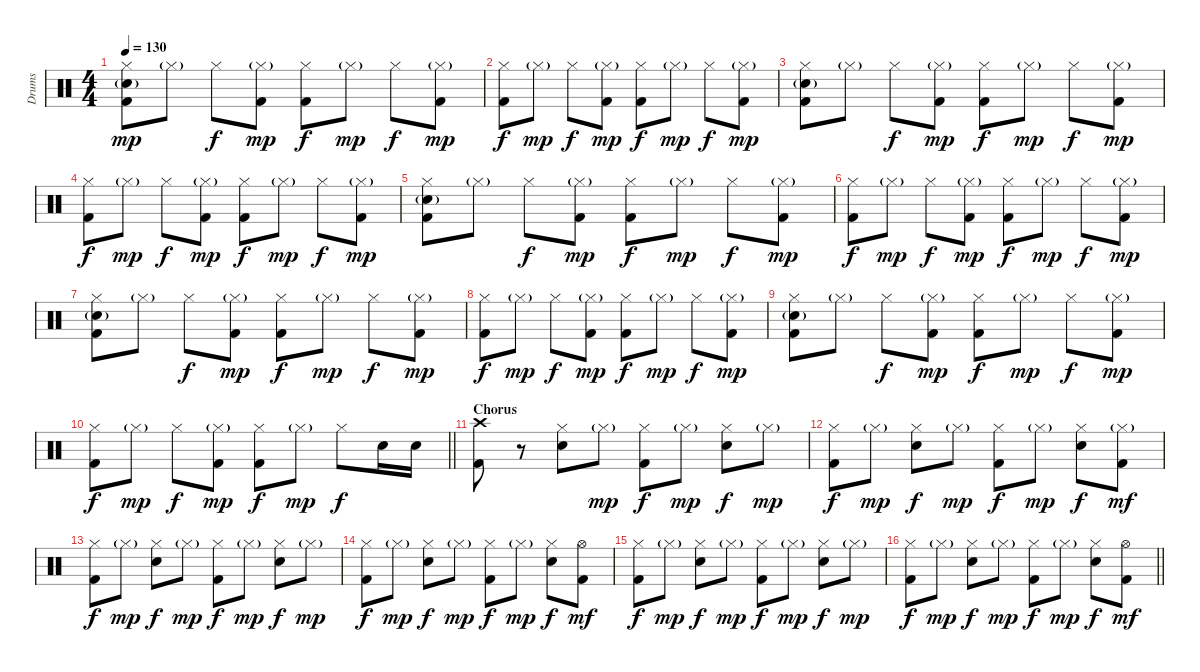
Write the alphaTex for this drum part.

\track ("Drums" "Drums") {instrument percussion}
\staff {score}
\articulation defaults
\ts (4 4)
\tempo 130
\clef neutral
\ks c
("Hi-Hat (closed)" "Snare (hit) 2"{g} "Kick (hit) 2").8{dy mp} "Hi-Hat (closed)"{g}.8 "Hi-Hat (closed)".8{dy f} ("Hi-Hat (closed)"{g} "Kick (hit) 2").8{dy mp} ("Hi-Hat (closed)" "Kick (hit) 2").8{dy f} "Hi-Hat (closed)"{g}.8{dy mp} "Hi-Hat (closed)".8{dy f} ("Hi-Hat (closed)"{g} "Kick (hit) 2").8{dy mp} |
("Hi-Hat (closed)" "Kick (hit) 2").8{dy f} "Hi-Hat (closed)"{g}.8{dy mp} "Hi-Hat (closed)".8{dy f} ("Hi-Hat (closed)"{g} "Kick (hit) 2").8{dy mp} ("Hi-Hat (closed)" "Kick (hit) 2").8{dy f} "Hi-Hat (closed)"{g}.8{dy mp} "Hi-Hat (closed)".8{dy f} ("Hi-Hat (closed)"{g} "Kick (hit) 2").8{dy mp} |
("Hi-Hat (closed)" "Snare (hit) 2"{g} "Kick (hit) 2").8 "Hi-Hat (closed)"{g}.8 "Hi-Hat (closed)".8{dy f} ("Hi-Hat (closed)"{g} "Kick (hit) 2").8{dy mp} ("Hi-Hat (closed)" "Kick (hit) 2").8{dy f} "Hi-Hat (closed)"{g}.8{dy mp} "Hi-Hat (closed)".8{dy f} ("Hi-Hat (closed)"{g} "Kick (hit) 2").8{dy mp} |
("Hi-Hat (closed)" "Kick (hit) 2").8{dy f} "Hi-Hat (closed)"{g}.8{dy mp} "Hi-Hat (closed)".8{dy f} ("Hi-Hat (closed)"{g} "Kick (hit) 2").8{dy mp} ("Hi-Hat (closed)" "Kick (hit) 2").8{dy f} "Hi-Hat (closed)"{g}.8{dy mp} "Hi-Hat (closed)".8{dy f} ("Hi-Hat (closed)"{g} "Kick (hit) 2").8{dy mp} |
("Hi-Hat (closed)" "Snare (hit) 2"{g} "Kick (hit) 2").8 "Hi-Hat (closed)"{g}.8 "Hi-Hat (closed)".8{dy f} ("Hi-Hat (closed)"{g} "Kick (hit) 2").8{dy mp} ("Hi-Hat (closed)" "Kick (hit) 2").8{dy f} "Hi-Hat (closed)"{g}.8{dy mp} "Hi-Hat (closed)".8{dy f} ("Hi-Hat (closed)"{g} "Kick (hit) 2").8{dy mp} |
("Hi-Hat (closed)" "Kick (hit) 2").8{dy f} "Hi-Hat (closed)"{g}.8{dy mp} "Hi-Hat (closed)".8{dy f} ("Hi-Hat (closed)"{g} "Kick (hit) 2").8{dy mp} ("Hi-Hat (closed)" "Kick (hit) 2").8{dy f} "Hi-Hat (closed)"{g}.8{dy mp} "Hi-Hat (closed)".8{dy f} ("Hi-Hat (closed)"{g} "Kick (hit) 2").8{dy mp} |
("Hi-Hat (closed)" "Snare (hit) 2"{g} "Kick (hit) 2").8 "Hi-Hat (closed)"{g}.8 "Hi-Hat (closed)".8{dy f} ("Hi-Hat (closed)"{g} "Kick (hit) 2").8{dy mp} ("Hi-Hat (closed)" "Kick (hit) 2").8{dy f} "Hi-Hat (closed)"{g}.8{dy mp} "Hi-Hat (closed)".8{dy f} ("Hi-Hat (closed)"{g} "Kick (hit) 2").8{dy mp} |
("Hi-Hat (closed)" "Kick (hit) 2").8{dy f} "Hi-Hat (closed)"{g}.8{dy mp} "Hi-Hat (closed)".8{dy f} ("Hi-Hat (closed)"{g} "Kick (hit) 2").8{dy mp} ("Hi-Hat (closed)" "Kick (hit) 2").8{dy f} "Hi-Hat (closed)"{g}.8{dy mp} "Hi-Hat (closed)".8{dy f} ("Hi-Hat (closed)"{g} "Kick (hit) 2").8{dy mp} |
("Hi-Hat (closed)" "Snare (hit) 2"{g} "Kick (hit) 2").8 "Hi-Hat (closed)"{g}.8 "Hi-Hat (closed)".8{dy f} ("Hi-Hat (closed)"{g} "Kick (hit) 2").8{dy mp} ("Hi-Hat (closed)" "Kick (hit) 2").8{dy f} "Hi-Hat (closed)"{g}.8{dy mp} "Hi-Hat (closed)".8{dy f} ("Hi-Hat (closed)"{g} "Kick (hit) 2").8{dy mp} |
\barLineRight lightlight
("Hi-Hat (closed)" "Kick (hit) 2").8{dy f} "Hi-Hat (closed)"{g}.8{dy mp} "Hi-Hat (closed)".8{dy f} ("Hi-Hat (closed)"{g} "Kick (hit) 2").8{dy mp} ("Hi-Hat (closed)" "Kick (hit) 2").8{dy f} "Hi-Hat (closed)"{g}.8{dy mp} "Hi-Hat (closed)".8{dy f} "Snare (hit) 2".16 "Snare (hit) 2".16 |
\section ("" "Chorus")
("Crash high (hit)" "Kick (hit) 2").8 r.8 ("Hi-Hat (closed)" "Snare (hit) 2").8 "Hi-Hat (closed)"{g}.8{dy mp} ("Hi-Hat (closed)" "Kick (hit) 2").8{dy f} "Hi-Hat (closed)"{g}.8{dy mp} ("Hi-Hat (closed)" "Snare (hit) 2").8{dy f} "Hi-Hat (closed)"{g}.8{dy mp} |
("Hi-Hat (closed)" "Kick (hit) 2").8{dy f} "Hi-Hat (closed)"{g}.8{dy mp} ("Hi-Hat (closed)" "Snare (hit) 2").8{dy f} "Hi-Hat (closed)"{g}.8{dy mp} ("Hi-Hat (closed)" "Kick (hit) 2").8{dy f} "Hi-Hat (closed)"{g}.8{dy mp} ("Hi-Hat (closed)" "Snare (hit) 2").8{dy f} ("Hi-Hat (closed)"{g} "Kick (hit) 2").8{dy mf} |
("Hi-Hat (closed)" "Kick (hit) 2").8{dy f} "Hi-Hat (closed)"{g}.8{dy mp} ("Hi-Hat (closed)" "Snare (hit) 2").8{dy f} "Hi-Hat (closed)"{g}.8{dy mp} ("Hi-Hat (closed)" "Kick (hit) 2").8{dy f} "Hi-Hat (closed)"{g}.8{dy mp} ("Hi-Hat (closed)" "Snare (hit) 2").8{dy f} "Hi-Hat (closed)"{g}.8{dy mp} |
("Hi-Hat (closed)" "Kick (hit) 2").8{dy f} "Hi-Hat (closed)"{g}.8{dy mp} ("Hi-Hat (closed)" "Snare (hit) 2").8{dy f} "Hi-Hat (closed)"{g}.8{dy mp} ("Hi-Hat (closed)" "Kick (hit) 2").8{dy f} "Hi-Hat (closed)"{g}.8{dy mp} ("Hi-Hat (closed)" "Snare (hit) 2").8{dy f} ("Hi-Hat (open)" "Kick (hit) 2").8{dy mf} |
("Hi-Hat (closed)" "Kick (hit) 2").8{dy f} "Hi-Hat (closed)"{g}.8{dy mp} ("Hi-Hat (closed)" "Snare (hit) 2").8{dy f} "Hi-Hat (closed)"{g}.8{dy mp} ("Hi-Hat (closed)" "Kick (hit) 2").8{dy f} "Hi-Hat (closed)"{g}.8{dy mp} ("Hi-Hat (closed)" "Snare (hit) 2").8{dy f} "Hi-Hat (closed)"{g}.8{dy mp} |
\barLineRight lightlight
("Hi-Hat (closed)" "Kick (hit) 2").8{dy f} "Hi-Hat (closed)"{g}.8{dy mp} ("Hi-Hat (closed)" "Snare (hit) 2").8{dy f} "Hi-Hat (closed)"{g}.8{dy mp} ("Hi-Hat (closed)" "Kick (hit) 2").8{dy f} "Hi-Hat (closed)"{g}.8{dy mp} ("Hi-Hat (closed)" "Snare (hit) 2").8{dy f} ("Hi-Hat (open)" "Kick (hit) 2").8{dy mf}
